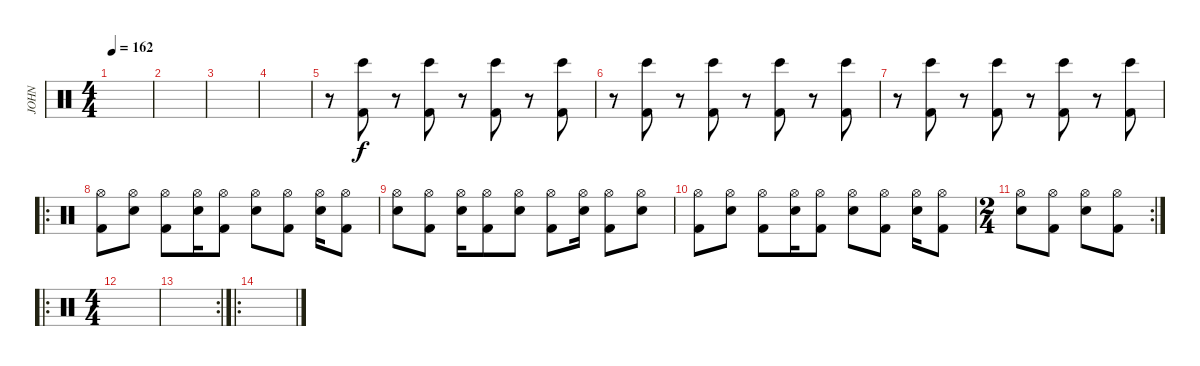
\track ("JOHN" "JOHN") {instrument percussion}
\staff {score}
\articulation defaults
\ts (4 4)
\tempo 162
\clef neutral
\ks c
|
|
|
|
r.8 ("Kick (hit) 2" "Bongo High (hit)").8 r.8 ("Kick (hit) 2" "Bongo High (hit)").8 r.8 ("Kick (hit) 2" "Bongo High (hit)").8 r.8 ("Kick (hit) 2" "Bongo High (hit)").8 |
r.8 ("Kick (hit) 2" "Bongo High (hit)").8 r.8 ("Kick (hit) 2" "Bongo High (hit)").8 r.8 ("Kick (hit) 2" "Bongo High (hit)").8 r.8 ("Kick (hit) 2" "Bongo High (hit)").8 |
r.8 ("Kick (hit) 2" "Bongo High (hit)").8 r.8 ("Kick (hit) 2" "Bongo High (hit)").8 r.8 ("Kick (hit) 2" "Bongo High (hit)").8 r.8 ("Kick (hit) 2" "Bongo High (hit)").8 |
\ro
("Hi-Hat (open)" "Kick (hit) 2").8{dy f} ("Hi-Hat (open)" "Snare (hit) 2").8 ("Hi-Hat (open)" "Kick (hit) 2").8 ("Hi-Hat (open)" "Snare (hit) 2").16 ("Hi-Hat (open)" "Kick (hit) 2").8 ("Hi-Hat (open)" "Snare (hit) 2").8 ("Hi-Hat (open)" "Kick (hit) 2").8 ("Hi-Hat (open)" "Snare (hit) 2").16 ("Hi-Hat (open)" "Kick (hit) 2").8 |
("Hi-Hat (open)" "Snare (hit) 2").8 ("Hi-Hat (open)" "Kick (hit) 2").8 ("Hi-Hat (open)" "Snare (hit) 2").16 ("Hi-Hat (open)" "Kick (hit) 2").8 ("Hi-Hat (open)" "Snare (hit) 2").8 ("Hi-Hat (open)" "Kick (hit) 2").8 ("Hi-Hat (open)" "Snare (hit) 2").16 ("Hi-Hat (open)" "Kick (hit) 2").8 ("Hi-Hat (open)" "Snare (hit) 2").8 |
("Hi-Hat (open)" "Kick (hit) 2").8 ("Hi-Hat (open)" "Snare (hit) 2").8 ("Hi-Hat (open)" "Kick (hit) 2").8 ("Hi-Hat (open)" "Snare (hit) 2").16 ("Hi-Hat (open)" "Kick (hit) 2").8 ("Hi-Hat (open)" "Snare (hit) 2").8 ("Hi-Hat (open)" "Kick (hit) 2").8 ("Hi-Hat (open)" "Snare (hit) 2").16 ("Hi-Hat (open)" "Kick (hit) 2").8 |
\rc 2
\ts (2 4)
("Hi-Hat (open)" "Snare (hit) 2").8 ("Hi-Hat (open)" "Kick (hit) 2").8 ("Hi-Hat (open)" "Snare (hit) 2").8 ("Hi-Hat (open)" "Kick (hit) 2").8 |
\ro
\ts (4 4)
|
\rc 2
|
\ro
